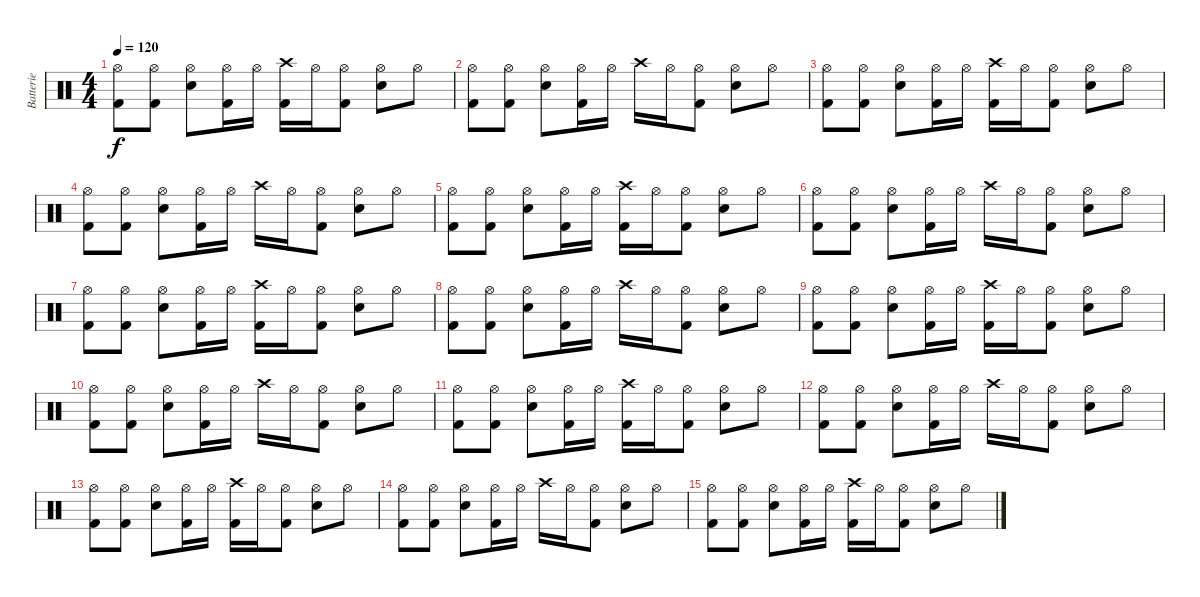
\track ("Batterie" "Batterie") {instrument percussion}
\staff {score}
\articulation defaults
\ts (4 4)
\tempo 120
\clef neutral
\ks c
("Hi-Hat (open)" "Kick (hit) 2").8{dy f} ("Hi-Hat (open)" "Kick (hit) 2").8 ("Hi-Hat (open)" "Snare (hit) 2").8 ("Hi-Hat (open)" "Kick (hit) 2").16 "Hi-Hat (open)".16 ("Crash high (hit)" "Kick (hit) 2").16 "Hi-Hat (open)".16 ("Hi-Hat (open)" "Kick (hit) 2").8 ("Hi-Hat (open)" "Snare (hit) 2").8 "Hi-Hat (open)".8 |
("Hi-Hat (open)" "Kick (hit) 2").8 ("Hi-Hat (open)" "Kick (hit) 2").8 ("Hi-Hat (open)" "Snare (hit) 2").8 ("Hi-Hat (open)" "Kick (hit) 2").16 "Hi-Hat (open)".16 "Crash high (hit)".16 "Hi-Hat (open)".16 ("Hi-Hat (open)" "Kick (hit) 2").8 ("Hi-Hat (open)" "Snare (hit) 2").8 "Hi-Hat (open)".8 |
("Hi-Hat (open)" "Kick (hit) 2").8 ("Hi-Hat (open)" "Kick (hit) 2").8 ("Hi-Hat (open)" "Snare (hit) 2").8 ("Hi-Hat (open)" "Kick (hit) 2").16 "Hi-Hat (open)".16 ("Crash high (hit)" "Kick (hit) 2").16 "Hi-Hat (open)".16 ("Hi-Hat (open)" "Kick (hit) 2").8 ("Hi-Hat (open)" "Snare (hit) 2").8 "Hi-Hat (open)".8 |
("Hi-Hat (open)" "Kick (hit) 2").8 ("Hi-Hat (open)" "Kick (hit) 2").8 ("Hi-Hat (open)" "Snare (hit) 2").8 ("Hi-Hat (open)" "Kick (hit) 2").16 "Hi-Hat (open)".16 "Crash high (hit)".16 "Hi-Hat (open)".16 ("Hi-Hat (open)" "Kick (hit) 2").8 ("Hi-Hat (open)" "Snare (hit) 2").8 "Hi-Hat (open)".8 |
("Hi-Hat (open)" "Kick (hit) 2").8 ("Hi-Hat (open)" "Kick (hit) 2").8 ("Hi-Hat (open)" "Snare (hit) 2").8 ("Hi-Hat (open)" "Kick (hit) 2").16 "Hi-Hat (open)".16 ("Crash high (hit)" "Kick (hit) 2").16 "Hi-Hat (open)".16 ("Hi-Hat (open)" "Kick (hit) 2").8 ("Hi-Hat (open)" "Snare (hit) 2").8 "Hi-Hat (open)".8 |
("Hi-Hat (open)" "Kick (hit) 2").8 ("Hi-Hat (open)" "Kick (hit) 2").8 ("Hi-Hat (open)" "Snare (hit) 2").8 ("Hi-Hat (open)" "Kick (hit) 2").16 "Hi-Hat (open)".16 "Crash high (hit)".16 "Hi-Hat (open)".16 ("Hi-Hat (open)" "Kick (hit) 2").8 ("Hi-Hat (open)" "Snare (hit) 2").8 "Hi-Hat (open)".8 |
("Hi-Hat (open)" "Kick (hit) 2").8 ("Hi-Hat (open)" "Kick (hit) 2").8 ("Hi-Hat (open)" "Snare (hit) 2").8 ("Hi-Hat (open)" "Kick (hit) 2").16 "Hi-Hat (open)".16 ("Crash high (hit)" "Kick (hit) 2").16 "Hi-Hat (open)".16 ("Hi-Hat (open)" "Kick (hit) 2").8 ("Hi-Hat (open)" "Snare (hit) 2").8 "Hi-Hat (open)".8 |
("Hi-Hat (open)" "Kick (hit) 2").8 ("Hi-Hat (open)" "Kick (hit) 2").8 ("Hi-Hat (open)" "Snare (hit) 2").8 ("Hi-Hat (open)" "Kick (hit) 2").16 "Hi-Hat (open)".16 "Crash high (hit)".16 "Hi-Hat (open)".16 ("Hi-Hat (open)" "Kick (hit) 2").8 ("Hi-Hat (open)" "Snare (hit) 2").8 "Hi-Hat (open)".8 |
("Hi-Hat (open)" "Kick (hit) 2").8 ("Hi-Hat (open)" "Kick (hit) 2").8 ("Hi-Hat (open)" "Snare (hit) 2").8 ("Hi-Hat (open)" "Kick (hit) 2").16 "Hi-Hat (open)".16 ("Crash high (hit)" "Kick (hit) 2").16 "Hi-Hat (open)".16 ("Hi-Hat (open)" "Kick (hit) 2").8 ("Hi-Hat (open)" "Snare (hit) 2").8 "Hi-Hat (open)".8 |
("Hi-Hat (open)" "Kick (hit) 2").8 ("Hi-Hat (open)" "Kick (hit) 2").8 ("Hi-Hat (open)" "Snare (hit) 2").8 ("Hi-Hat (open)" "Kick (hit) 2").16 "Hi-Hat (open)".16 "Crash high (hit)".16 "Hi-Hat (open)".16 ("Hi-Hat (open)" "Kick (hit) 2").8 ("Hi-Hat (open)" "Snare (hit) 2").8 "Hi-Hat (open)".8 |
("Hi-Hat (open)" "Kick (hit) 2").8 ("Hi-Hat (open)" "Kick (hit) 2").8 ("Hi-Hat (open)" "Snare (hit) 2").8 ("Hi-Hat (open)" "Kick (hit) 2").16 "Hi-Hat (open)".16 ("Crash high (hit)" "Kick (hit) 2").16 "Hi-Hat (open)".16 ("Hi-Hat (open)" "Kick (hit) 2").8 ("Hi-Hat (open)" "Snare (hit) 2").8 "Hi-Hat (open)".8 |
("Hi-Hat (open)" "Kick (hit) 2").8 ("Hi-Hat (open)" "Kick (hit) 2").8 ("Hi-Hat (open)" "Snare (hit) 2").8 ("Hi-Hat (open)" "Kick (hit) 2").16 "Hi-Hat (open)".16 "Crash high (hit)".16 "Hi-Hat (open)".16 ("Hi-Hat (open)" "Kick (hit) 2").8 ("Hi-Hat (open)" "Snare (hit) 2").8 "Hi-Hat (open)".8 |
("Hi-Hat (open)" "Kick (hit) 2").8 ("Hi-Hat (open)" "Kick (hit) 2").8 ("Hi-Hat (open)" "Snare (hit) 2").8 ("Hi-Hat (open)" "Kick (hit) 2").16 "Hi-Hat (open)".16 ("Crash high (hit)" "Kick (hit) 2").16 "Hi-Hat (open)".16 ("Hi-Hat (open)" "Kick (hit) 2").8 ("Hi-Hat (open)" "Snare (hit) 2").8 "Hi-Hat (open)".8 |
("Hi-Hat (open)" "Kick (hit) 2").8 ("Hi-Hat (open)" "Kick (hit) 2").8 ("Hi-Hat (open)" "Snare (hit) 2").8 ("Hi-Hat (open)" "Kick (hit) 2").16 "Hi-Hat (open)".16 "Crash high (hit)".16 "Hi-Hat (open)".16 ("Hi-Hat (open)" "Kick (hit) 2").8 ("Hi-Hat (open)" "Snare (hit) 2").8 "Hi-Hat (open)".8 |
("Hi-Hat (open)" "Kick (hit) 2").8 ("Hi-Hat (open)" "Kick (hit) 2").8 ("Hi-Hat (open)" "Snare (hit) 2").8 ("Hi-Hat (open)" "Kick (hit) 2").16 "Hi-Hat (open)".16 ("Crash high (hit)" "Kick (hit) 2").16 "Hi-Hat (open)".16 ("Hi-Hat (open)" "Kick (hit) 2").8 ("Hi-Hat (open)" "Snare (hit) 2").8 "Hi-Hat (open)".8
